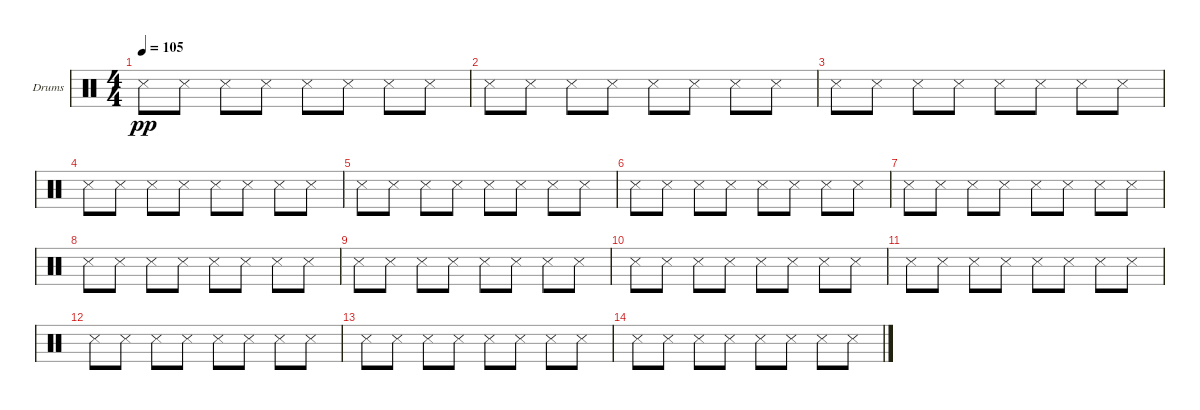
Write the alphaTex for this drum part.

\defaultSystemsLayout 4
\bracketExtendMode groupsimilarinstruments
\firstSystemTrackNameOrientation horizontal
\otherSystemsTrackNameOrientation horizontal
\track ("Drumkit" "Drums") {instrument percussion}
\staff {score}
\articulation defaults
\ts (4 4)
\tempo 105
\clef neutral
\scale
0.333333
\ks c "Snare (side stick) 3".8{dy pp} "Snare (side stick) 3".8 "Snare (side stick) 3".8 "Snare (side stick) 3".8 "Snare (side stick) 3".8 "Snare (side stick) 3".8 "Snare (side stick) 3".8 "Snare (side stick) 3".8
|
\scale
0.333333 "Snare (side stick) 3".8 "Snare (side stick) 3".8 "Snare (side stick) 3".8 "Snare (side stick) 3".8 "Snare (side stick) 3".8 "Snare (side stick) 3".8 "Snare (side stick) 3".8 "Snare (side stick) 3".8 |
\scale
0.333333 "Snare (side stick) 3".8 "Snare (side stick) 3".8 "Snare (side stick) 3".8 "Snare (side stick) 3".8 "Snare (side stick) 3".8 "Snare (side stick) 3".8 "Snare (side stick) 3".8 "Snare (side stick) 3".8 |
\scale
0.333333 "Snare (side stick) 3".8 "Snare (side stick) 3".8 "Snare (side stick) 3".8 "Snare (side stick) 3".8 "Snare (side stick) 3".8 "Snare (side stick) 3".8 "Snare (side stick) 3".8 "Snare (side stick) 3".8 |
\scale
0.333333 "Snare (side stick) 3".8 "Snare (side stick) 3".8 "Snare (side stick) 3".8 "Snare (side stick) 3".8 "Snare (side stick) 3".8 "Snare (side stick) 3".8 "Snare (side stick) 3".8 "Snare (side stick) 3".8 |
\scale
0.333333 "Snare (side stick) 3".8 "Snare (side stick) 3".8 "Snare (side stick) 3".8 "Snare (side stick) 3".8 "Snare (side stick) 3".8 "Snare (side stick) 3".8 "Snare (side stick) 3".8 "Snare (side stick) 3".8 |
\scale
0.333333 "Snare (side stick) 3".8 "Snare (side stick) 3".8 "Snare (side stick) 3".8 "Snare (side stick) 3".8 "Snare (side stick) 3".8 "Snare (side stick) 3".8 "Snare (side stick) 3".8 "Snare (side stick) 3".8 |
\scale
0.333333 "Snare (side stick) 3".8 "Snare (side stick) 3".8 "Snare (side stick) 3".8 "Snare (side stick) 3".8 "Snare (side stick) 3".8 "Snare (side stick) 3".8 "Snare (side stick) 3".8 "Snare (side stick) 3".8 |
\scale
0.333333 "Snare (side stick) 3".8 "Snare (side stick) 3".8 "Snare (side stick) 3".8 "Snare (side stick) 3".8 "Snare (side stick) 3".8 "Snare (side stick) 3".8 "Snare (side stick) 3".8 "Snare (side stick) 3".8 |
\scale
0.333333 "Snare (side stick) 3".8 "Snare (side stick) 3".8 "Snare (side stick) 3".8 "Snare (side stick) 3".8 "Snare (side stick) 3".8 "Snare (side stick) 3".8 "Snare (side stick) 3".8 "Snare (side stick) 3".8 |
\scale
0.333333 "Snare (side stick) 3".8 "Snare (side stick) 3".8 "Snare (side stick) 3".8 "Snare (side stick) 3".8 "Snare (side stick) 3".8 "Snare (side stick) 3".8 "Snare (side stick) 3".8 "Snare (side stick) 3".8 |
\scale
0.333333 "Snare (side stick) 3".8 "Snare (side stick) 3".8 "Snare (side stick) 3".8 "Snare (side stick) 3".8 "Snare (side stick) 3".8 "Snare (side stick) 3".8 "Snare (side stick) 3".8 "Snare (side stick) 3".8 |
\scale
0.333333 "Snare (side stick) 3".8 "Snare (side stick) 3".8 "Snare (side stick) 3".8 "Snare (side stick) 3".8 "Snare (side stick) 3".8 "Snare (side stick) 3".8 "Snare (side stick) 3".8 "Snare (side stick) 3".8 |
\scale
0.333333 "Snare (side stick) 3".8 "Snare (side stick) 3".8 "Snare (side stick) 3".8 "Snare (side stick) 3".8 "Snare (side stick) 3".8 "Snare (side stick) 3".8 "Snare (side stick) 3".8 "Snare (side stick) 3".8 |
\scale
0.333333 |
\scale
0.333333
